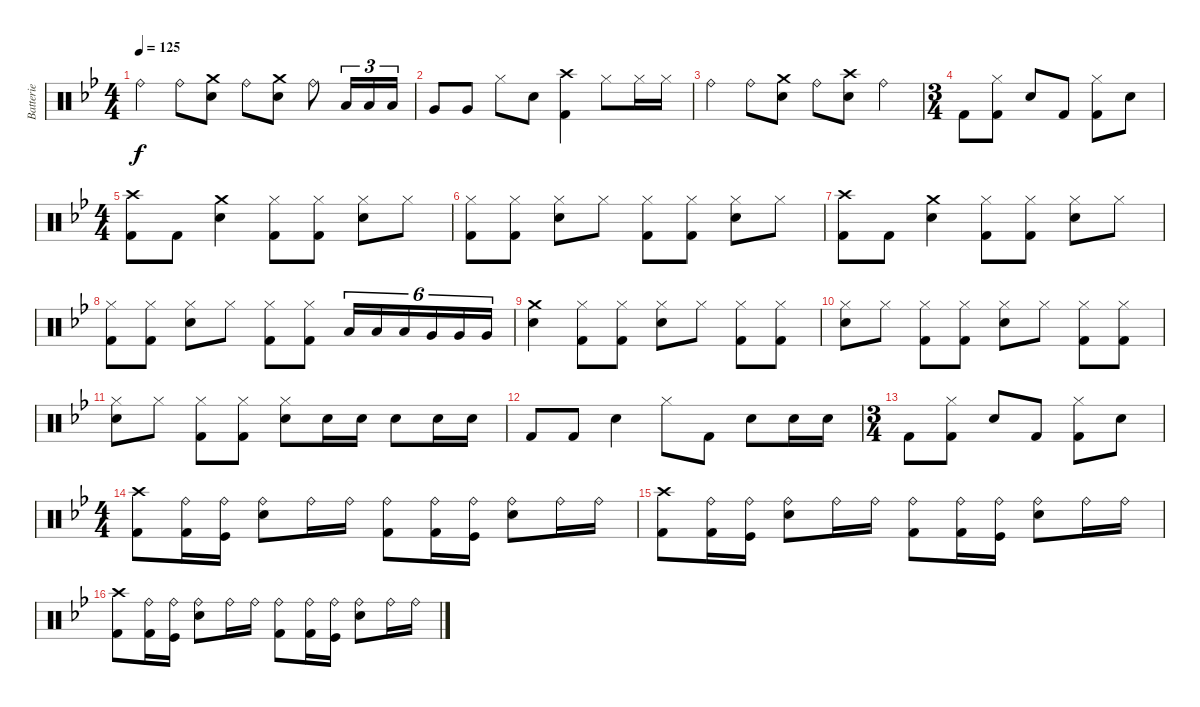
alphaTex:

\track ("Batterie" "Batterie") {instrument percussion}
\staff {score}
\articulation defaults
\ts (4 4)
\tempo 125
\clef neutral
\ks bb "Ride (bell)".4{dy f} "Ride (bell)".8
("Crash medium (hit)" "Electric Snare (hit)").8 "Ride (bell)".8 ("Crash medium (hit)" "Electric Snare (hit)").8 "Ride (bell)".8 "Low Floor Tom (hit)".16{tu (3 2)} "Low Floor Tom (hit)".16{tu (3 2)} "Low Floor Tom (hit)".16{tu (3 2)} |
"Very Low Tom (hit)".8 "Very Low Tom (hit)".8 "Hi-Hat (closed)".8 "Electric Snare (hit)".8 ("Crash high (hit)" "Kick (hit) 2").4 "Hi-Hat (closed)".8 "Hi-Hat (closed)".16 "Hi-Hat (closed)".16 |
"Ride (bell)".4 "Ride (bell)".8 ("Crash medium (hit)" "Electric Snare (hit)").8 "Ride (bell)".8 ("Crash high (hit)" "Electric Snare (hit)").8 "Ride (bell)".4 |
\ts (3 4)
"Kick (hit) 2".8 ("Hi-Hat (closed)" "Kick (hit) 2").8 "Electric Snare (hit)".8 "Kick (hit) 2".8 ("Hi-Hat (closed)" "Kick (hit) 2").8 "Electric Snare (hit)".8 |
\ts (4 4)
("Crash high (hit)" "Kick (hit) 2").8 "Kick (hit) 2".8 ("Crash medium (hit)" "Electric Snare (hit)").4 ("Hi-Hat (closed)" "Kick (hit) 2").8 ("Hi-Hat (closed)" "Kick (hit) 2").8 ("Hi-Hat (closed)" "Electric Snare (hit)").8 "Hi-Hat (closed)".8 |
("Hi-Hat (closed)" "Kick (hit) 2").8 ("Hi-Hat (closed)" "Kick (hit) 2").8 ("Hi-Hat (closed)" "Electric Snare (hit)").8 "Hi-Hat (closed)".8 ("Hi-Hat (closed)" "Kick (hit) 2").8 ("Hi-Hat (closed)" "Kick (hit) 2").8 ("Hi-Hat (closed)" "Electric Snare (hit)").8 "Hi-Hat (closed)".8 |
("Crash high (hit)" "Kick (hit) 2").8 "Kick (hit) 2".8 ("Crash medium (hit)" "Electric Snare (hit)").4 ("Hi-Hat (closed)" "Kick (hit) 2").8 ("Hi-Hat (closed)" "Kick (hit) 2").8 ("Hi-Hat (closed)" "Electric Snare (hit)").8 "Hi-Hat (closed)".8 |
("Hi-Hat (closed)" "Kick (hit) 2").8 ("Hi-Hat (closed)" "Kick (hit) 2").8 ("Hi-Hat (closed)" "Electric Snare (hit)").8 "Hi-Hat (closed)".8 ("Hi-Hat (closed)" "Kick (hit) 2").8 ("Hi-Hat (closed)" "Kick (hit) 2").8 "Low Tom (hit)".16{tu (6 4)} "Low Tom (hit)".16{tu (6 4)} "Low Tom (hit)".16{tu (6 4)} "Very Low Tom (hit)".16{tu (6 4)} "Very Low Tom (hit)".16{tu (6 4)} "Very Low Tom (hit)".16{tu (6 4)} |
("Crash medium (hit)" "Electric Snare (hit)").4 ("Hi-Hat (closed)" "Kick (hit) 2").8 ("Hi-Hat (closed)" "Kick (hit) 2").8 ("Hi-Hat (closed)" "Electric Snare (hit)").8 "Hi-Hat (closed)".8 ("Hi-Hat (closed)" "Kick (hit) 2").8 ("Hi-Hat (closed)" "Kick (hit) 2").8 |
("Hi-Hat (closed)" "Electric Snare (hit)").8 "Hi-Hat (closed)".8 ("Hi-Hat (closed)" "Kick (hit) 2").8 ("Hi-Hat (closed)" "Kick (hit) 2").8 ("Hi-Hat (closed)" "Electric Snare (hit)").8 "Hi-Hat (closed)".8 ("Hi-Hat (closed)" "Kick (hit) 2").8 ("Hi-Hat (closed)" "Kick (hit) 2").8 |
("Hi-Hat (closed)" "Electric Snare (hit)").8 "Hi-Hat (closed)".8 ("Hi-Hat (closed)" "Kick (hit) 2").8 ("Hi-Hat (closed)" "Kick (hit) 2").8 ("Hi-Hat (closed)" "Electric Snare (hit)").8 "Electric Snare (hit)".16 "Electric Snare (hit)".16 "Electric Snare (hit)".8 "Electric Snare (hit)".16 "Electric Snare (hit)".16 |
"Kick (hit) 2".8 "Kick (hit) 2".8 "Electric Snare (hit)".4 "Hi-Hat (closed)".8 "Kick (hit) 2".8 "Electric Snare (hit)".8 "Electric Snare (hit)".16 "Electric Snare (hit)".16 |
\ts (3 4)
"Kick (hit) 2".8 ("Hi-Hat (closed)" "Kick (hit) 2").8 "Electric Snare (hit)".8 "Kick (hit) 2".8 ("Hi-Hat (closed)" "Kick (hit) 2").8 "Electric Snare (hit)".8 |
\ts (4 4)
("Crash high (hit)" "Kick (hit) 2").8 ("Ride (bell)" "Kick (hit) 2").16 ("Ride (bell)" "Kick (hit)").16 ("Ride (bell)" "Electric Snare (hit)").8 "Ride (bell)".16 "Ride (bell)".16 ("Ride (bell)" "Kick (hit) 2").8 ("Ride (bell)" "Kick (hit) 2").16 ("Ride (bell)" "Kick (hit)").16 ("Ride (bell)" "Electric Snare (hit)").8 "Ride (bell)".16 "Ride (bell)".16 |
("Crash high (hit)" "Kick (hit) 2").8 ("Ride (bell)" "Kick (hit) 2").16 ("Ride (bell)" "Kick (hit)").16 ("Ride (bell)" "Electric Snare (hit)").8 "Ride (bell)".16 "Ride (bell)".16 ("Ride (bell)" "Kick (hit) 2").8 ("Ride (bell)" "Kick (hit) 2").16 ("Ride (bell)" "Kick (hit)").16 ("Ride (bell)" "Electric Snare (hit)").8 "Ride (bell)".16 "Ride (bell)".16 |
("Crash high (hit)" "Kick (hit) 2").8 ("Ride (bell)" "Kick (hit) 2").16 ("Ride (bell)" "Kick (hit)").16 ("Ride (bell)" "Electric Snare (hit)").8 "Ride (bell)".16 "Ride (bell)".16 ("Ride (bell)" "Kick (hit) 2").8 ("Ride (bell)" "Kick (hit) 2").16 ("Ride (bell)" "Kick (hit)").16 ("Ride (bell)" "Electric Snare (hit)").8 "Ride (bell)".16 "Ride (bell)".16
